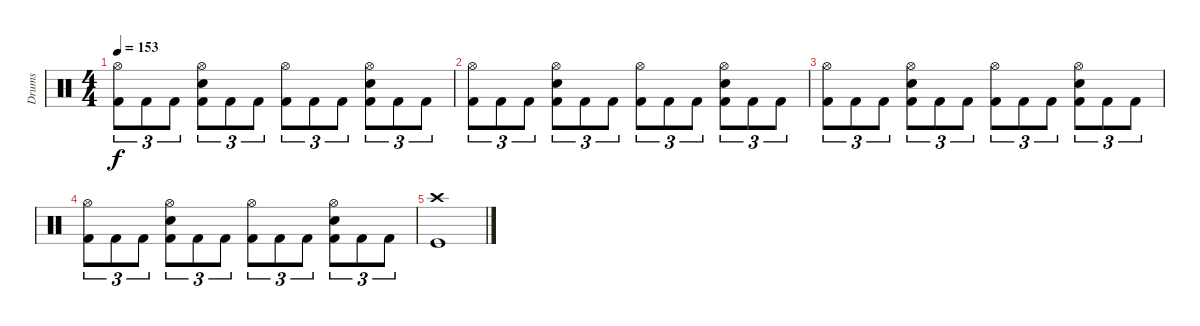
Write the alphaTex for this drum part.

\track ("Drums" "Drums") {instrument percussion}
\staff {score}
\articulation defaults
\ts (4 4)
\tempo 153
\clef neutral
\ks c
("Hi-Hat (open)" "Kick (hit) 2").8{tu (3 2) dy f} "Kick (hit) 2".8{tu (3 2)} "Kick (hit) 2".8{tu (3 2)} ("Hi-Hat (open)" "Snare (hit) 2" "Kick (hit) 2").8{tu (3 2)} "Kick (hit) 2".8{tu (3 2)} "Kick (hit) 2".8{tu (3 2)} ("Hi-Hat (open)" "Kick (hit) 2").8{tu (3 2)} "Kick (hit) 2".8{tu (3 2)} "Kick (hit) 2".8{tu (3 2)} ("Hi-Hat (open)" "Snare (hit) 2" "Kick (hit) 2").8{tu (3 2)} "Kick (hit) 2".8{tu (3 2)} "Kick (hit) 2".8{tu (3 2)} |
("Hi-Hat (open)" "Kick (hit) 2").8{tu (3 2)} "Kick (hit) 2".8{tu (3 2)} "Kick (hit) 2".8{tu (3 2)} ("Hi-Hat (open)" "Snare (hit) 2" "Kick (hit) 2").8{tu (3 2)} "Kick (hit) 2".8{tu (3 2)} "Kick (hit) 2".8{tu (3 2)} ("Hi-Hat (open)" "Kick (hit) 2").8{tu (3 2)} "Kick (hit) 2".8{tu (3 2)} "Kick (hit) 2".8{tu (3 2)} ("Hi-Hat (open)" "Snare (hit) 2" "Kick (hit) 2").8{tu (3 2)} "Kick (hit) 2".8{tu (3 2)} "Kick (hit) 2".8{tu (3 2)} |
("Hi-Hat (open)" "Kick (hit) 2").8{tu (3 2)} "Kick (hit) 2".8{tu (3 2)} "Kick (hit) 2".8{tu (3 2)} ("Hi-Hat (open)" "Snare (hit) 2" "Kick (hit) 2").8{tu (3 2)} "Kick (hit) 2".8{tu (3 2)} "Kick (hit) 2".8{tu (3 2)} ("Hi-Hat (open)" "Kick (hit) 2").8{tu (3 2)} "Kick (hit) 2".8{tu (3 2)} "Kick (hit) 2".8{tu (3 2)} ("Hi-Hat (open)" "Snare (hit) 2" "Kick (hit) 2").8{tu (3 2)} "Kick (hit) 2".8{tu (3 2)} "Kick (hit) 2".8{tu (3 2)} |
("Hi-Hat (open)" "Kick (hit) 2").8{tu (3 2)} "Kick (hit) 2".8{tu (3 2)} "Kick (hit) 2".8{tu (3 2)} ("Hi-Hat (open)" "Snare (hit) 2" "Kick (hit) 2").8{tu (3 2)} "Kick (hit) 2".8{tu (3 2)} "Kick (hit) 2".8{tu (3 2)} ("Hi-Hat (open)" "Kick (hit) 2").8{tu (3 2)} "Kick (hit) 2".8{tu (3 2)} "Kick (hit) 2".8{tu (3 2)} ("Hi-Hat (open)" "Snare (hit) 2" "Kick (hit) 2").8{tu (3 2)} "Kick (hit) 2".8{tu (3 2)} "Kick (hit) 2".8{tu (3 2)} |
("Crash high (hit)" "Kick (hit)").1
